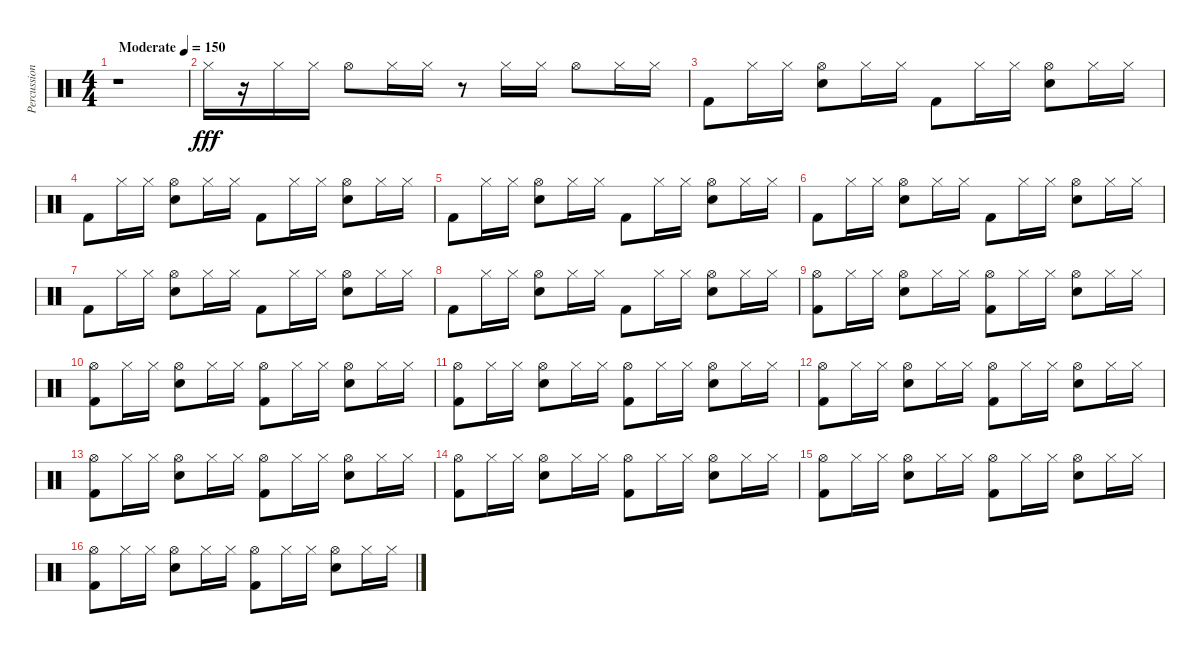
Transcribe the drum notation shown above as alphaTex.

\track ("Percussion" "Percussion") {instrument percussion}
\staff {score}
\articulation defaults
\ts (4 4)
\tempo (150 "Moderate")
\clef neutral
\ks c
r.1{dy fff} |
"Hi-Hat (closed)".16 r.16 "Hi-Hat (closed)".16 "Hi-Hat (closed)".16 "Hi-Hat (open)".8 "Hi-Hat (closed)".16 "Hi-Hat (closed)".16 r.8 "Hi-Hat (closed)".16 "Hi-Hat (closed)".16 "Hi-Hat (open)".8 "Hi-Hat (closed)".16 "Hi-Hat (closed)".16 |
"Kick (hit) 2".8 "Hi-Hat (closed)".16 "Hi-Hat (closed)".16 ("Snare (hit) 2" "Hi-Hat (open)").8 "Hi-Hat (closed)".16 "Hi-Hat (closed)".16 "Kick (hit) 2".8 "Hi-Hat (closed)".16 "Hi-Hat (closed)".16 ("Snare (hit) 2" "Hi-Hat (open)").8 "Hi-Hat (closed)".16 "Hi-Hat (closed)".16 |
"Kick (hit) 2".8 "Hi-Hat (closed)".16 "Hi-Hat (closed)".16 ("Snare (hit) 2" "Hi-Hat (open)").8 "Hi-Hat (closed)".16 "Hi-Hat (closed)".16 "Kick (hit) 2".8 "Hi-Hat (closed)".16 "Hi-Hat (closed)".16 ("Snare (hit) 2" "Hi-Hat (open)").8 "Hi-Hat (closed)".16 "Hi-Hat (closed)".16 |
"Kick (hit) 2".8 "Hi-Hat (closed)".16 "Hi-Hat (closed)".16 ("Snare (hit) 2" "Hi-Hat (open)").8 "Hi-Hat (closed)".16 "Hi-Hat (closed)".16 "Kick (hit) 2".8 "Hi-Hat (closed)".16 "Hi-Hat (closed)".16 ("Snare (hit) 2" "Hi-Hat (open)").8 "Hi-Hat (closed)".16 "Hi-Hat (closed)".16 |
"Kick (hit) 2".8 "Hi-Hat (closed)".16 "Hi-Hat (closed)".16 ("Snare (hit) 2" "Hi-Hat (open)").8 "Hi-Hat (closed)".16 "Hi-Hat (closed)".16 "Kick (hit) 2".8 "Hi-Hat (closed)".16 "Hi-Hat (closed)".16 ("Snare (hit) 2" "Hi-Hat (open)").8 "Hi-Hat (closed)".16 "Hi-Hat (closed)".16 |
"Kick (hit) 2".8 "Hi-Hat (closed)".16 "Hi-Hat (closed)".16 ("Snare (hit) 2" "Hi-Hat (open)").8 "Hi-Hat (closed)".16 "Hi-Hat (closed)".16 "Kick (hit) 2".8 "Hi-Hat (closed)".16 "Hi-Hat (closed)".16 ("Snare (hit) 2" "Hi-Hat (open)").8 "Hi-Hat (closed)".16 "Hi-Hat (closed)".16 |
"Kick (hit) 2".8 "Hi-Hat (closed)".16 "Hi-Hat (closed)".16 ("Snare (hit) 2" "Hi-Hat (open)").8 "Hi-Hat (closed)".16 "Hi-Hat (closed)".16 "Kick (hit) 2".8 "Hi-Hat (closed)".16 "Hi-Hat (closed)".16 ("Snare (hit) 2" "Hi-Hat (open)").8 "Hi-Hat (closed)".16 "Hi-Hat (closed)".16 |
("Kick (hit) 2" "Hi-Hat (open)").8 "Hi-Hat (closed)".16 "Hi-Hat (closed)".16 ("Snare (hit) 2" "Hi-Hat (open)").8 "Hi-Hat (closed)".16 "Hi-Hat (closed)".16 ("Kick (hit) 2" "Hi-Hat (open)").8 "Hi-Hat (closed)".16 "Hi-Hat (closed)".16 ("Snare (hit) 2" "Hi-Hat (open)").8 "Hi-Hat (closed)".16 "Hi-Hat (closed)".16 |
("Kick (hit) 2" "Hi-Hat (open)").8 "Hi-Hat (closed)".16 "Hi-Hat (closed)".16 ("Snare (hit) 2" "Hi-Hat (open)").8 "Hi-Hat (closed)".16 "Hi-Hat (closed)".16 ("Kick (hit) 2" "Hi-Hat (open)").8 "Hi-Hat (closed)".16 "Hi-Hat (closed)".16 ("Snare (hit) 2" "Hi-Hat (open)").8 "Hi-Hat (closed)".16 "Hi-Hat (closed)".16 |
("Kick (hit) 2" "Hi-Hat (open)").8 "Hi-Hat (closed)".16 "Hi-Hat (closed)".16 ("Snare (hit) 2" "Hi-Hat (open)").8 "Hi-Hat (closed)".16 "Hi-Hat (closed)".16 ("Kick (hit) 2" "Hi-Hat (open)").8 "Hi-Hat (closed)".16 "Hi-Hat (closed)".16 ("Snare (hit) 2" "Hi-Hat (open)").8 "Hi-Hat (closed)".16 "Hi-Hat (closed)".16 |
("Kick (hit) 2" "Hi-Hat (open)").8 "Hi-Hat (closed)".16 "Hi-Hat (closed)".16 ("Snare (hit) 2" "Hi-Hat (open)").8 "Hi-Hat (closed)".16 "Hi-Hat (closed)".16 ("Kick (hit) 2" "Hi-Hat (open)").8 "Hi-Hat (closed)".16 "Hi-Hat (closed)".16 ("Snare (hit) 2" "Hi-Hat (open)").8 "Hi-Hat (closed)".16 "Hi-Hat (closed)".16 |
("Kick (hit) 2" "Hi-Hat (open)").8 "Hi-Hat (closed)".16 "Hi-Hat (closed)".16 ("Snare (hit) 2" "Hi-Hat (open)").8 "Hi-Hat (closed)".16 "Hi-Hat (closed)".16 ("Kick (hit) 2" "Hi-Hat (open)").8 "Hi-Hat (closed)".16 "Hi-Hat (closed)".16 ("Snare (hit) 2" "Hi-Hat (open)").8 "Hi-Hat (closed)".16 "Hi-Hat (closed)".16 |
("Kick (hit) 2" "Hi-Hat (open)").8 "Hi-Hat (closed)".16 "Hi-Hat (closed)".16 ("Snare (hit) 2" "Hi-Hat (open)").8 "Hi-Hat (closed)".16 "Hi-Hat (closed)".16 ("Kick (hit) 2" "Hi-Hat (open)").8 "Hi-Hat (closed)".16 "Hi-Hat (closed)".16 ("Snare (hit) 2" "Hi-Hat (open)").8 "Hi-Hat (closed)".16 "Hi-Hat (closed)".16 |
("Kick (hit) 2" "Hi-Hat (open)").8 "Hi-Hat (closed)".16 "Hi-Hat (closed)".16 ("Snare (hit) 2" "Hi-Hat (open)").8 "Hi-Hat (closed)".16 "Hi-Hat (closed)".16 ("Kick (hit) 2" "Hi-Hat (open)").8 "Hi-Hat (closed)".16 "Hi-Hat (closed)".16 ("Snare (hit) 2" "Hi-Hat (open)").8 "Hi-Hat (closed)".16 "Hi-Hat (closed)".16 |
("Kick (hit) 2" "Hi-Hat (open)").8 "Hi-Hat (closed)".16 "Hi-Hat (closed)".16 ("Snare (hit) 2" "Hi-Hat (open)").8 "Hi-Hat (closed)".16 "Hi-Hat (closed)".16 ("Kick (hit) 2" "Hi-Hat (open)").8 "Hi-Hat (closed)".16 "Hi-Hat (closed)".16 ("Snare (hit) 2" "Hi-Hat (open)").8 "Hi-Hat (closed)".16 "Hi-Hat (closed)".16
